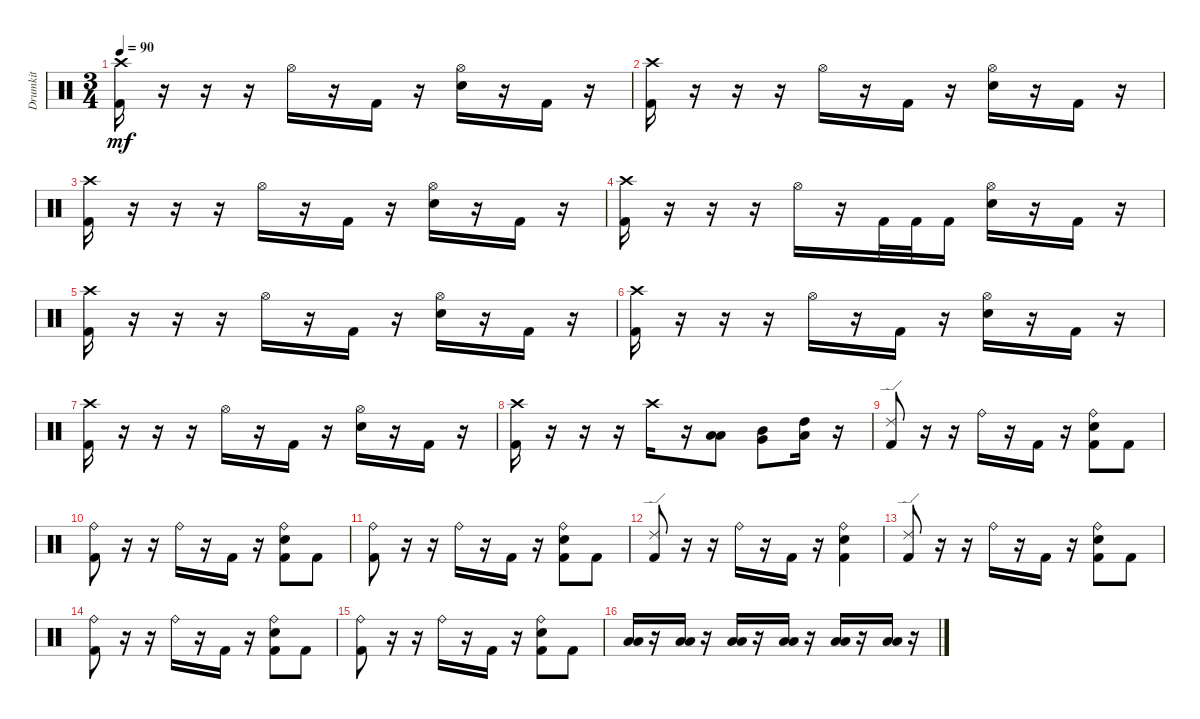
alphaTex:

\track ("Drumkit" "Drumkit") {instrument percussion}
\staff {score}
\articulation defaults
\ts (3 4)
\tempo 90
\clef neutral
\ks c
("Crash high (hit)" "Kick (hit) 2").16{dy mf} r.16 r.16 r.16 "Hi-Hat (open)".16 r.16 "Kick (hit) 2".16 r.16 ("Hi-Hat (open)" "Snare (hit) 2").16 r.16 "Kick (hit) 2".16 r.16 |
("Crash high (hit)" "Kick (hit) 2").16 r.16 r.16 r.16 "Hi-Hat (open)".16 r.16 "Kick (hit) 2".16 r.16 ("Hi-Hat (open)" "Snare (hit) 2").16 r.16 "Kick (hit) 2".16 r.16 |
("Crash high (hit)" "Kick (hit) 2").16 r.16 r.16 r.16 "Hi-Hat (open)".16 r.16 "Kick (hit) 2".16 r.16 ("Hi-Hat (open)" "Snare (hit) 2").16 r.16 "Kick (hit) 2".16 r.16 |
("Crash high (hit)" "Kick (hit) 2").16 r.16 r.16 r.16 "Hi-Hat (open)".16 r.16 "Kick (hit) 2".32 "Kick (hit) 2".32 "Kick (hit) 2".16 ("Hi-Hat (open)" "Snare (hit) 2").16 r.16 "Kick (hit) 2".16 r.16 |
("Crash high (hit)" "Kick (hit) 2").16 r.16 r.16 r.16 "Hi-Hat (open)".16 r.16 "Kick (hit) 2".16 r.16 ("Hi-Hat (open)" "Snare (hit) 2").16 r.16 "Kick (hit) 2".16 r.16 |
("Crash high (hit)" "Kick (hit) 2").16 r.16 r.16 r.16 "Hi-Hat (open)".16 r.16 "Kick (hit) 2".16 r.16 ("Hi-Hat (open)" "Snare (hit) 2").16 r.16 "Kick (hit) 2".16 r.16 |
("Crash high (hit)" "Kick (hit) 2").16 r.16 r.16 r.16 "Hi-Hat (open)".16 r.16 "Kick (hit) 2".16 r.16 ("Hi-Hat (open)" "Snare (hit) 2").16 r.16 "Kick (hit) 2".16 r.16 |
("Crash high (hit)" "Kick (hit) 2").16 r.16 r.16 r.16 "Crash high (hit)".16 r.16 ("Low Floor Tom (hit)" "Low Tom (hit)").8 ("Very Low Tom (hit)" "Mid Tom (hit)").8 ("High Tom (hit)" "Low Tom (hit)").16 r.16 |
("Ride (edge) 2" "Kick (hit) 2").8 r.16 r.16 "Ride (bell)".16 r.16 "Kick (hit) 2".16 r.16 ("Ride (bell)" "Snare (hit) 2" "Kick (hit) 2").8 "Kick (hit) 2".8 |
("Ride (bell)" "Kick (hit) 2").8 r.16 r.16 "Ride (bell)".16 r.16 "Kick (hit) 2".16 r.16 ("Ride (bell)" "Snare (hit) 2" "Kick (hit) 2").8 "Kick (hit) 2".8 |
("Ride (bell)" "Kick (hit) 2").8 r.16 r.16 "Ride (bell)".16 r.16 "Kick (hit) 2".16 r.16 ("Ride (bell)" "Snare (hit) 2" "Kick (hit) 2").8 "Kick (hit) 2".8 |
("Ride (edge) 2" "Kick (hit) 2").8 r.16 r.16 "Ride (bell)".16 r.16 "Kick (hit) 2".16 r.16 ("Ride (bell)" "Snare (hit) 2" "Kick (hit) 2").4 |
("Ride (edge) 2" "Kick (hit) 2").8 r.16 r.16 "Ride (bell)".16 r.16 "Kick (hit) 2".16 r.16 ("Ride (bell)" "Snare (hit) 2" "Kick (hit) 2").8 "Kick (hit) 2".8 |
("Ride (bell)" "Kick (hit) 2").8 r.16 r.16 "Ride (bell)".16 r.16 "Kick (hit) 2".16 r.16 ("Ride (bell)" "Snare (hit) 2" "Kick (hit) 2").8 "Kick (hit) 2".8 |
("Ride (bell)" "Kick (hit) 2").8 r.16 r.16 "Ride (bell)".16 r.16 "Kick (hit) 2".16 r.16 ("Ride (bell)" "Snare (hit) 2" "Kick (hit) 2").8 "Kick (hit) 2".8 |
("Low Floor Tom (hit)" "Low Tom (hit)").16 r.16 ("Low Tom (hit)" "Low Floor Tom (hit)").16 r.16 ("Low Floor Tom (hit)" "Low Tom (hit)").16 r.16 ("Low Floor Tom (hit)" "Low Tom (hit)").16 r.16 ("Low Floor Tom (hit)" "Low Tom (hit)").16 r.16 ("Low Floor Tom (hit)" "Low Tom (hit)").16 r.16
